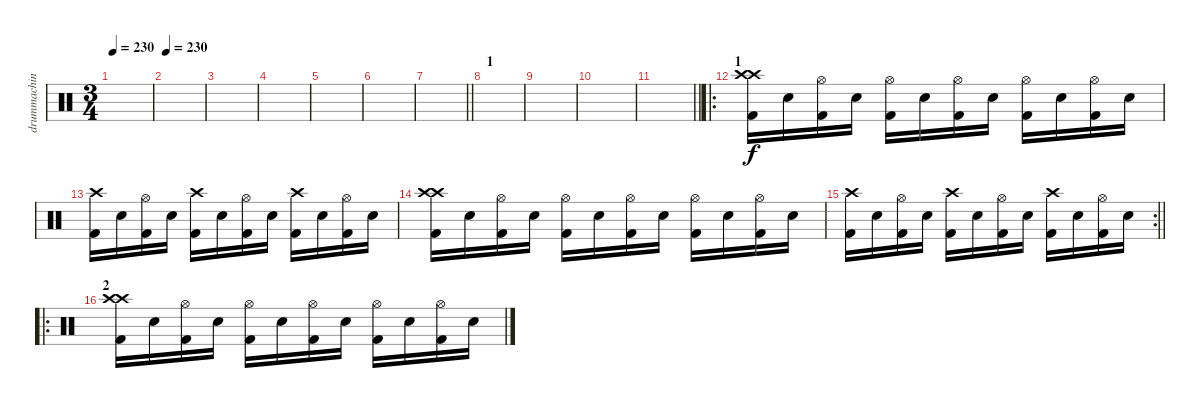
\track ("drummachine" "drummachin") {instrument percussion}
\staff {score}
\articulation defaults
\ts (3 4)
\tempo 230
\clef neutral
\ks c
|
\tempo 230
|
|
|
|
|
\barLineRight lightlight
|
\section ("" "1")
|
|
|
\barLineRight lightlight
|
\ro
\section ("" "1")
("Crash high (hit)" "Crash high (hit)" "Kick (hit) 2").16 "Snare (hit) 2".16 ("Hi-Hat (open)" "Kick (hit) 2").16 "Snare (hit) 2".16 ("Hi-Hat (open)" "Kick (hit) 2").16 "Snare (hit) 2".16 ("Hi-Hat (open)" "Kick (hit) 2").16 "Snare (hit) 2".16 ("Hi-Hat (open)" "Kick (hit) 2").16 "Snare (hit) 2".16 ("Hi-Hat (open)" "Kick (hit) 2").16 "Snare (hit) 2".16 |
("Crash high (hit)" "Kick (hit) 2").16 "Snare (hit) 2".16 ("Hi-Hat (open)" "Kick (hit) 2").16 "Snare (hit) 2".16 ("Crash high (hit)" "Kick (hit) 2").16 "Snare (hit) 2".16 ("Hi-Hat (open)" "Kick (hit) 2").16 "Snare (hit) 2".16 ("Crash high (hit)" "Kick (hit) 2").16 "Snare (hit) 2".16 ("Hi-Hat (open)" "Kick (hit) 2").16 "Snare (hit) 2".16 |
("Crash high (hit)" "Crash high (hit)" "Kick (hit) 2").16 "Snare (hit) 2".16 ("Hi-Hat (open)" "Kick (hit) 2").16 "Snare (hit) 2".16 ("Hi-Hat (open)" "Kick (hit) 2").16 "Snare (hit) 2".16 ("Hi-Hat (open)" "Kick (hit) 2").16 "Snare (hit) 2".16 ("Hi-Hat (open)" "Kick (hit) 2").16 "Snare (hit) 2".16 ("Hi-Hat (open)" "Kick (hit) 2").16 "Snare (hit) 2".16 |
\rc 2
\barLineRight lightlight
("Crash high (hit)" "Kick (hit) 2").16 "Snare (hit) 2".16 ("Hi-Hat (open)" "Kick (hit) 2").16 "Snare (hit) 2".16 ("Crash high (hit)" "Kick (hit) 2").16 "Snare (hit) 2".16 ("Hi-Hat (open)" "Kick (hit) 2").16 "Snare (hit) 2".16 ("Crash high (hit)" "Kick (hit) 2").16 "Snare (hit) 2".16 ("Hi-Hat (open)" "Kick (hit) 2").16 "Snare (hit) 2".16 |
\ro
\section ("" "2")
("Crash high (hit)" "Crash high (hit)" "Kick (hit) 2").16 "Snare (hit) 2".16 ("Hi-Hat (open)" "Kick (hit) 2").16 "Snare (hit) 2".16 ("Hi-Hat (open)" "Kick (hit) 2").16 "Snare (hit) 2".16 ("Hi-Hat (open)" "Kick (hit) 2").16 "Snare (hit) 2".16 ("Hi-Hat (open)" "Kick (hit) 2").16 "Snare (hit) 2".16 ("Hi-Hat (open)" "Kick (hit) 2").16 "Snare (hit) 2".16
